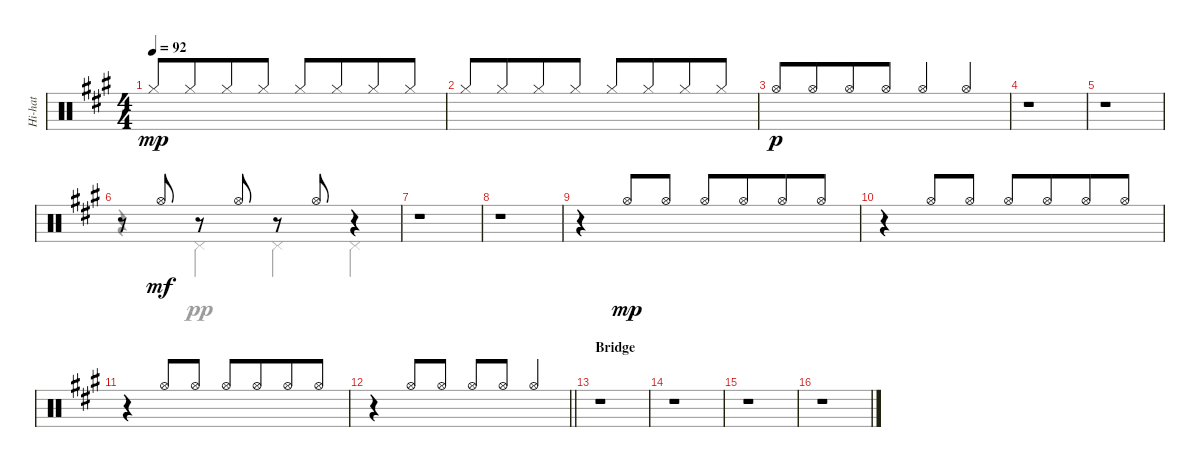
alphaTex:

\track ("Hi-hat" "Hi-hat") {instrument percussion}
\staff {score}
\articulation defaults
\voice
\ts (4 4)
\tempo 92
\clef neutral
\ks f#minor "Hi-Hat (closed)".8{dy mp beam Up} "Hi-Hat (closed)".8{beam Up beam merge} "Hi-Hat (closed)".8{beam Up} "Hi-Hat (closed)".8{beam Up} "Hi-Hat (closed)".8{beam Up} "Hi-Hat (closed)".8{beam Up beam merge} "Hi-Hat (closed)".8{beam Up} "Hi-Hat (closed)".8{beam Up}
|
"Hi-Hat (closed)".8{beam Up} "Hi-Hat (closed)".8{beam Up beam merge} "Hi-Hat (closed)".8{beam Up} "Hi-Hat (closed)".8{beam Up} "Hi-Hat (closed)".8{beam Up} "Hi-Hat (closed)".8{beam Up beam merge} "Hi-Hat (closed)".8{beam Up} "Hi-Hat (closed)".8{beam Up} |
"Hi-Hat (open)".8{dy p beam Up} "Hi-Hat (open)".8{beam Up beam merge} "Hi-Hat (open)".8{beam Up} "Hi-Hat (open)".8{beam Up} "Hi-Hat (open)".4{beam Up} "Hi-Hat (open)".4{beam Up} |
r.1 |
r.1 |
r.8 "Hi-Hat (open)".8{dy mf beam split} r.8 "Hi-Hat (open)".8 r.8 "Hi-Hat (open)".8 r.4 |
r.1 |
r.1 |
r.4 "Hi-Hat (open)".8{dy mp beam Up} "Hi-Hat (open)".8{beam Up} "Hi-Hat (open)".8{beam Up} "Hi-Hat (open)".8{beam Up beam merge} "Hi-Hat (open)".8{beam Up} "Hi-Hat (open)".8{beam Up} |
r.4 "Hi-Hat (open)".8{beam Up} "Hi-Hat (open)".8{beam Up} "Hi-Hat (open)".8{beam Up} "Hi-Hat (open)".8{beam Up beam merge} "Hi-Hat (open)".8{beam Up} "Hi-Hat (open)".8{beam Up} |
r.4 "Hi-Hat (open)".8{beam Up} "Hi-Hat (open)".8{beam Up} "Hi-Hat (open)".8{beam Up} "Hi-Hat (open)".8{beam Up beam merge} "Hi-Hat (open)".8{beam Up} "Hi-Hat (open)".8{beam Up} |
\barLineRight lightlight
r.4 "Hi-Hat (open)".8{beam Up} "Hi-Hat (open)".8{beam Up} "Hi-Hat (open)".8{beam Up} "Hi-Hat (open)".8{beam Up beam merge} "Hi-Hat (open)".4{beam Up} |
\section ("" "Bridge")
r.1 |
r.1 |
r.1 |
r.1
\voice
\clef neutral
\ottava regular
\simile none
\ks f#minor
|
|
|
|
|
r.4 "Pedal Hi-Hat (hit)".4{dy pp} "Pedal Hi-Hat (hit)".4 "Pedal Hi-Hat (hit)".4 |
|
|
|
|
|
\barLineRight lightlight
|
|
|
|
